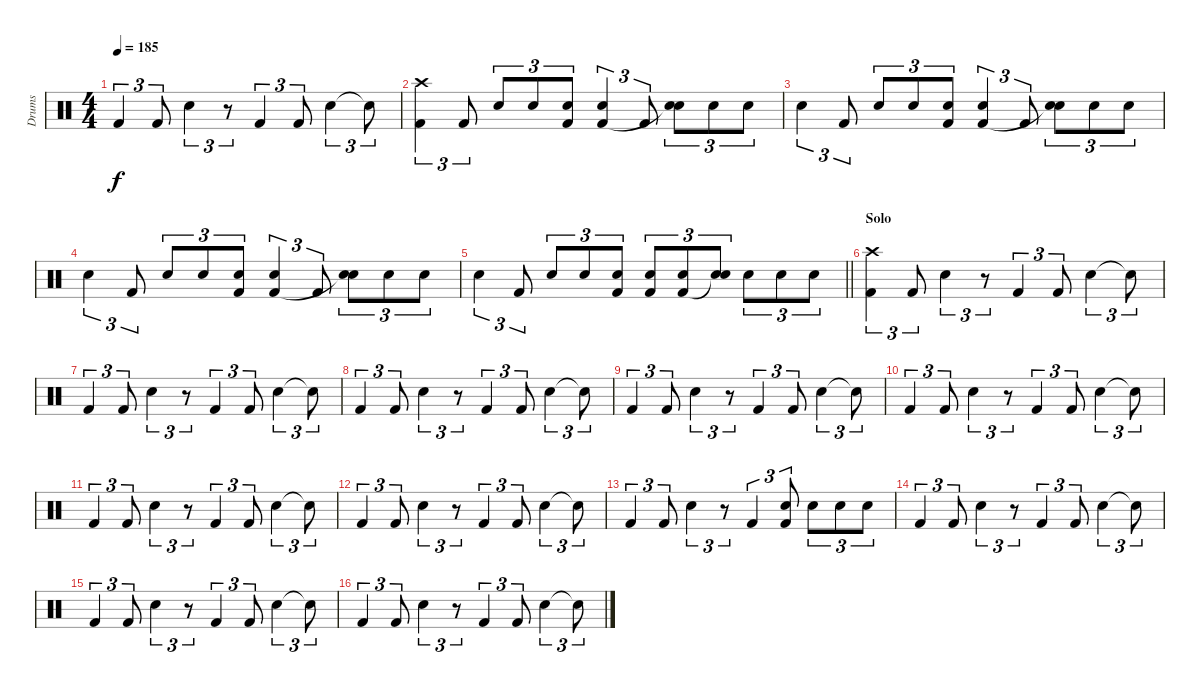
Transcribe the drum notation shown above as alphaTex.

\track ("Drums" "Drums") {instrument percussion}
\staff {score}
\articulation defaults
\ts (4 4)
\tempo 185
\clef neutral
\ks c "Kick (hit) 2".4{tu (3 2) dy f} "Kick (hit) 2".8{tu (3 2)} "Snare (hit) 2".4{tu (3 2)}
r.8{tu (3 2)} "Kick (hit) 2".4{tu (3 2)} "Kick (hit) 2".8{tu (3 2)} "Snare (hit) 2".4{tu (3 2)} "Snare (hit)"{t}.8{tu (3 2)} |
("Crash high (hit)" "Kick (hit) 2").4{tu (3 2)} "Kick (hit) 2".8{tu (3 2)} "Snare (hit) 2".8{tu (3 2)} "Snare (hit) 2".8{tu (3 2)} ("Snare (hit) 2" "Kick (hit) 2").8{tu (3 2)} ("Snare (hit) 2" "Kick (hit) 2").4{tu (3 2)} "Kick (hit) 2".8{tu (3 2)} ("Snare (hit) 2" "Snare (hit)"{t}).8{tu (3 2)} "Snare (hit) 2".8{tu (3 2)} "Snare (hit) 2".8{tu (3 2)} |
"Snare (hit) 2".4{tu (3 2)} "Kick (hit) 2".8{tu (3 2)} "Snare (hit) 2".8{tu (3 2)} "Snare (hit) 2".8{tu (3 2)} ("Snare (hit) 2" "Kick (hit) 2").8{tu (3 2)} ("Snare (hit) 2" "Kick (hit) 2").4{tu (3 2)} "Kick (hit) 2".8{tu (3 2)} ("Snare (hit) 2" "Snare (hit)"{t}).8{tu (3 2)} "Snare (hit) 2".8{tu (3 2)} "Snare (hit) 2".8{tu (3 2)} |
"Snare (hit) 2".4{tu (3 2)} "Kick (hit) 2".8{tu (3 2)} "Snare (hit) 2".8{tu (3 2)} "Snare (hit) 2".8{tu (3 2)} ("Snare (hit) 2" "Kick (hit) 2").8{tu (3 2)} ("Snare (hit) 2" "Kick (hit) 2").4{tu (3 2)} "Kick (hit) 2".8{tu (3 2)} ("Snare (hit) 2" "Snare (hit)"{t}).8{tu (3 2)} "Snare (hit) 2".8{tu (3 2)} "Snare (hit) 2".8{tu (3 2)} |
\barLineRight lightlight "Snare (hit) 2".4{tu (3 2)} "Kick (hit) 2".8{tu (3 2)} "Snare (hit) 2".8{tu (3 2)} "Snare (hit) 2".8{tu (3 2)}
("Snare (hit) 2" "Kick (hit) 2").8{tu (3 2)} ("Snare (hit) 2" "Kick (hit) 2").8{tu (3 2)} ("Snare (hit) 2" "Kick (hit) 2").8{tu (3 2)} ("Snare (hit) 2" "Snare (hit)"{t}).8{tu (3 2)} "Snare (hit) 2".8{tu (3 2)} "Snare (hit) 2".8{tu (3 2)} "Snare (hit) 2".8{tu (3 2)} |
\section ("" "Solo")
("Crash high (hit)" "Kick (hit) 2").4{tu (3 2)} "Kick (hit) 2".8{tu (3 2)} "Snare (hit) 2".4{tu (3 2)} r.8{tu (3 2)} "Kick (hit) 2".4{tu (3 2)} "Kick (hit) 2".8{tu (3 2)} "Snare (hit) 2".4{tu (3 2)} "Snare (hit)"{t}.8{tu (3 2)} |
"Kick (hit) 2".4{tu (3 2)} "Kick (hit) 2".8{tu (3 2)} "Snare (hit) 2".4{tu (3 2)} r.8{tu (3 2)} "Kick (hit) 2".4{tu (3 2)} "Kick (hit) 2".8{tu (3 2)} "Snare (hit) 2".4{tu (3 2)} "Snare (hit)"{t}.8{tu (3 2)} |
"Kick (hit) 2".4{tu (3 2)} "Kick (hit) 2".8{tu (3 2)} "Snare (hit) 2".4{tu (3 2)} r.8{tu (3 2)} "Kick (hit) 2".4{tu (3 2)} "Kick (hit) 2".8{tu (3 2)} "Snare (hit) 2".4{tu (3 2)} "Snare (hit)"{t}.8{tu (3 2)} |
"Kick (hit) 2".4{tu (3 2)} "Kick (hit) 2".8{tu (3 2)} "Snare (hit) 2".4{tu (3 2)} r.8{tu (3 2)} "Kick (hit) 2".4{tu (3 2)} "Kick (hit) 2".8{tu (3 2)} "Snare (hit) 2".4{tu (3 2)} "Snare (hit)"{t}.8{tu (3 2)} |
"Kick (hit) 2".4{tu (3 2)} "Kick (hit) 2".8{tu (3 2)} "Snare (hit) 2".4{tu (3 2)} r.8{tu (3 2)} "Kick (hit) 2".4{tu (3 2)} "Kick (hit) 2".8{tu (3 2)} "Snare (hit) 2".4{tu (3 2)} "Snare (hit)"{t}.8{tu (3 2)} |
"Kick (hit) 2".4{tu (3 2)} "Kick (hit) 2".8{tu (3 2)} "Snare (hit) 2".4{tu (3 2)} r.8{tu (3 2)} "Kick (hit) 2".4{tu (3 2)} "Kick (hit) 2".8{tu (3 2)} "Snare (hit) 2".4{tu (3 2)} "Snare (hit)"{t}.8{tu (3 2)} |
"Kick (hit) 2".4{tu (3 2)} "Kick (hit) 2".8{tu (3 2)} "Snare (hit) 2".4{tu (3 2)} r.8{tu (3 2)} "Kick (hit) 2".4{tu (3 2)} "Kick (hit) 2".8{tu (3 2)} "Snare (hit) 2".4{tu (3 2)} "Snare (hit)"{t}.8{tu (3 2)} |
"Kick (hit) 2".4{tu (3 2)} "Kick (hit) 2".8{tu (3 2)} "Snare (hit) 2".4{tu (3 2)} r.8{tu (3 2)} "Kick (hit) 2".4{tu (3 2)} ("Snare (hit) 2" "Kick (hit) 2").8{tu (3 2)} "Snare (hit) 2".8{tu (3 2)} "Snare (hit) 2".8{tu (3 2)} "Snare (hit) 2".8{tu (3 2)} |
"Kick (hit) 2".4{tu (3 2)} "Kick (hit) 2".8{tu (3 2)} "Snare (hit) 2".4{tu (3 2)} r.8{tu (3 2)} "Kick (hit) 2".4{tu (3 2)} "Kick (hit) 2".8{tu (3 2)} "Snare (hit) 2".4{tu (3 2)} "Snare (hit)"{t}.8{tu (3 2)} |
"Kick (hit) 2".4{tu (3 2)} "Kick (hit) 2".8{tu (3 2)} "Snare (hit) 2".4{tu (3 2)} r.8{tu (3 2)} "Kick (hit) 2".4{tu (3 2)} "Kick (hit) 2".8{tu (3 2)} "Snare (hit) 2".4{tu (3 2)} "Snare (hit)"{t}.8{tu (3 2)} |
"Kick (hit) 2".4{tu (3 2)} "Kick (hit) 2".8{tu (3 2)} "Snare (hit) 2".4{tu (3 2)} r.8{tu (3 2)} "Kick (hit) 2".4{tu (3 2)} "Kick (hit) 2".8{tu (3 2)} "Snare (hit) 2".4{tu (3 2)} "Snare (hit)"{t}.8{tu (3 2)}
